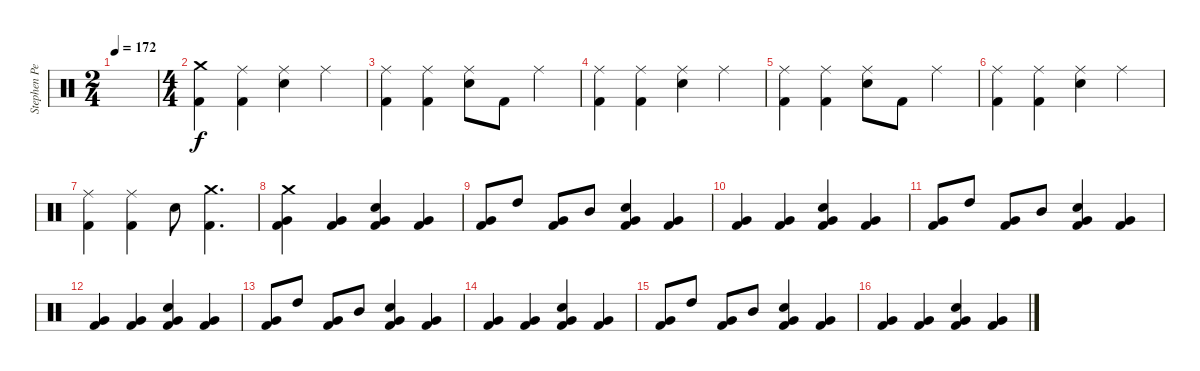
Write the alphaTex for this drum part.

\track ("Stephen Perkins" "Stephen Pe") {instrument percussion}
\staff {score}
\articulation defaults
\ts (2 4)
\tempo 172
\clef neutral
\ks c
|
\ts (4 4)
("Crash medium (hit)" "Kick (hit) 2").4 ("Ride (middle)" "Kick (hit) 2").4 ("Ride (middle)" "Snare (hit) 2").4 "Ride (middle)".4 |
("Ride (middle)" "Kick (hit) 2").4 ("Ride (middle)" "Kick (hit) 2").4 ("Ride (middle)" "Snare (hit) 2").8 "Kick (hit) 2".8 "Ride (middle)".4 |
("Ride (middle)" "Kick (hit) 2").4 ("Ride (middle)" "Kick (hit) 2").4 ("Ride (middle)" "Snare (hit) 2").4 "Ride (middle)".4 |
("Ride (middle)" "Kick (hit) 2").4 ("Ride (middle)" "Kick (hit) 2").4 ("Ride (middle)" "Snare (hit) 2").8 "Kick (hit) 2".8 "Ride (middle)".4 |
("Ride (middle)" "Kick (hit) 2").4 ("Ride (middle)" "Kick (hit) 2").4 ("Ride (middle)" "Snare (hit) 2").4 "Ride (middle)".4 |
("Ride (middle)" "Kick (hit) 2").4 ("Ride (middle)" "Kick (hit) 2").4 "Snare (hit) 2".8 ("Crash medium (hit)" "Kick (hit) 2").4{d} |
("Crash medium (hit)" "Very Low Tom (hit)" "Kick (hit) 2").4 ("Very Low Tom (hit)" "Kick (hit) 2").4 ("Snare (hit) 2" "Very Low Tom (hit)" "Kick (hit) 2").4 ("Very Low Tom (hit)" "Kick (hit) 2").4 |
("Very Low Tom (hit)" "Kick (hit) 2").8 "High Tom (hit)".8 ("Very Low Tom (hit)" "Kick (hit) 2").8 "Mid Tom (hit)".8 ("Snare (hit) 2" "Very Low Tom (hit)" "Kick (hit) 2").4 ("Very Low Tom (hit)" "Kick (hit) 2").4 |
("Very Low Tom (hit)" "Kick (hit) 2").4 ("Very Low Tom (hit)" "Kick (hit) 2").4 ("Snare (hit) 2" "Very Low Tom (hit)" "Kick (hit) 2").4 ("Very Low Tom (hit)" "Kick (hit) 2").4 |
("Very Low Tom (hit)" "Kick (hit) 2").8 "High Tom (hit)".8 ("Very Low Tom (hit)" "Kick (hit) 2").8 "Mid Tom (hit)".8 ("Snare (hit) 2" "Very Low Tom (hit)" "Kick (hit) 2").4 ("Very Low Tom (hit)" "Kick (hit) 2").4 |
("Very Low Tom (hit)" "Kick (hit) 2").4 ("Very Low Tom (hit)" "Kick (hit) 2").4 ("Snare (hit) 2" "Very Low Tom (hit)" "Kick (hit) 2").4 ("Very Low Tom (hit)" "Kick (hit) 2").4 |
("Very Low Tom (hit)" "Kick (hit) 2").8 "High Tom (hit)".8 ("Very Low Tom (hit)" "Kick (hit) 2").8 "Mid Tom (hit)".8 ("Snare (hit) 2" "Very Low Tom (hit)" "Kick (hit) 2").4 ("Very Low Tom (hit)" "Kick (hit) 2").4 |
("Very Low Tom (hit)" "Kick (hit) 2").4 ("Very Low Tom (hit)" "Kick (hit) 2").4 ("Snare (hit) 2" "Very Low Tom (hit)" "Kick (hit) 2").4 ("Very Low Tom (hit)" "Kick (hit) 2").4 |
("Very Low Tom (hit)" "Kick (hit) 2").8 "High Tom (hit)".8 ("Very Low Tom (hit)" "Kick (hit) 2").8 "Mid Tom (hit)".8 ("Snare (hit) 2" "Very Low Tom (hit)" "Kick (hit) 2").4 ("Very Low Tom (hit)" "Kick (hit) 2").4 |
("Very Low Tom (hit)" "Kick (hit) 2").4 ("Very Low Tom (hit)" "Kick (hit) 2").4 ("Snare (hit) 2" "Very Low Tom (hit)" "Kick (hit) 2").4 ("Very Low Tom (hit)" "Kick (hit) 2").4
